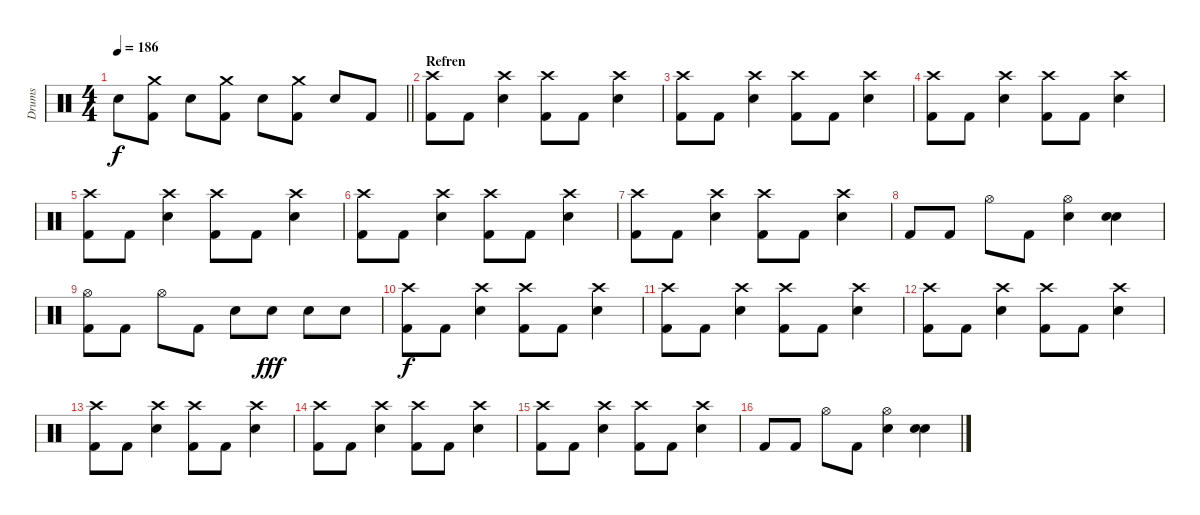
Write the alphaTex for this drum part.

\track ("Drums" "Drums") {instrument percussion}
\staff {score}
\articulation defaults
\ts (4 4)
\tempo 186
\clef neutral
\barLineRight lightlight
\ks c "Snare (hit) 2".8{dy f}
("Crash medium (hit)" "Kick (hit) 2").8 "Snare (hit) 2".8 ("Crash medium (hit)" "Kick (hit) 2").8 "Snare (hit) 2".8 ("Crash medium (hit)" "Kick (hit) 2").8 "Snare (hit) 2".8 "Kick (hit) 2".8 |
\section ("" "Refren")
("Crash high (hit)" "Kick (hit) 2").8 "Kick (hit) 2".8 ("Crash high (hit)" "Snare (hit) 2").4 ("Crash high (hit)" "Kick (hit) 2").8 "Kick (hit) 2".8 ("Crash high (hit)" "Snare (hit) 2").4 |
("Crash high (hit)" "Kick (hit) 2").8 "Kick (hit) 2".8 ("Crash high (hit)" "Snare (hit) 2").4 ("Crash high (hit)" "Kick (hit) 2").8 "Kick (hit) 2".8 ("Crash high (hit)" "Snare (hit) 2").4 |
("Crash high (hit)" "Kick (hit) 2").8 "Kick (hit) 2".8 ("Crash high (hit)" "Snare (hit) 2").4 ("Crash high (hit)" "Kick (hit) 2").8 "Kick (hit) 2".8 ("Crash high (hit)" "Snare (hit) 2").4 |
("Crash high (hit)" "Kick (hit) 2").8 "Kick (hit) 2".8 ("Crash high (hit)" "Snare (hit) 2").4 ("Crash high (hit)" "Kick (hit) 2").8 "Kick (hit) 2".8 ("Crash high (hit)" "Snare (hit) 2").4 |
("Crash high (hit)" "Kick (hit) 2").8 "Kick (hit) 2".8 ("Crash high (hit)" "Snare (hit) 2").4 ("Crash high (hit)" "Kick (hit) 2").8 "Kick (hit) 2".8 ("Crash high (hit)" "Snare (hit) 2").4 |
("Crash high (hit)" "Kick (hit) 2").8 "Kick (hit) 2".8 ("Crash high (hit)" "Snare (hit) 2").4 ("Crash high (hit)" "Kick (hit) 2").8 "Kick (hit) 2".8 ("Crash high (hit)" "Snare (hit) 2").4 |
"Kick (hit) 2".8 "Kick (hit) 2".8 "Hi-Hat (open)".8 "Kick (hit) 2".8 ("Hi-Hat (open)" "Snare (hit) 2").4 ("Snare (hit) 2" "Snare (hit) 2").4 |
("Hi-Hat (open)" "Kick (hit) 2").8 "Kick (hit) 2".8 "Hi-Hat (open)".8 "Kick (hit) 2".8 "Snare (hit) 2".8 "Snare (hit) 2".8{dy fff} "Snare (hit) 2".8 "Snare (hit) 2".8 |
("Crash high (hit)" "Kick (hit) 2").8{dy f} "Kick (hit) 2".8 ("Crash high (hit)" "Snare (hit) 2").4 ("Crash high (hit)" "Kick (hit) 2").8 "Kick (hit) 2".8 ("Crash high (hit)" "Snare (hit) 2").4 |
("Crash high (hit)" "Kick (hit) 2").8 "Kick (hit) 2".8 ("Crash high (hit)" "Snare (hit) 2").4 ("Crash high (hit)" "Kick (hit) 2").8 "Kick (hit) 2".8 ("Crash high (hit)" "Snare (hit) 2").4 |
("Crash high (hit)" "Kick (hit) 2").8 "Kick (hit) 2".8 ("Crash high (hit)" "Snare (hit) 2").4 ("Crash high (hit)" "Kick (hit) 2").8 "Kick (hit) 2".8 ("Crash high (hit)" "Snare (hit) 2").4 |
("Crash high (hit)" "Kick (hit) 2").8 "Kick (hit) 2".8 ("Crash high (hit)" "Snare (hit) 2").4 ("Crash high (hit)" "Kick (hit) 2").8 "Kick (hit) 2".8 ("Crash high (hit)" "Snare (hit) 2").4 |
("Crash high (hit)" "Kick (hit) 2").8 "Kick (hit) 2".8 ("Crash high (hit)" "Snare (hit) 2").4 ("Crash high (hit)" "Kick (hit) 2").8 "Kick (hit) 2".8 ("Crash high (hit)" "Snare (hit) 2").4 |
("Crash high (hit)" "Kick (hit) 2").8 "Kick (hit) 2".8 ("Crash high (hit)" "Snare (hit) 2").4 ("Crash high (hit)" "Kick (hit) 2").8 "Kick (hit) 2".8 ("Crash high (hit)" "Snare (hit) 2").4 |
"Kick (hit) 2".8 "Kick (hit) 2".8 "Hi-Hat (open)".8 "Kick (hit) 2".8 ("Hi-Hat (open)" "Snare (hit) 2").4 ("Snare (hit) 2" "Snare (hit) 2").4
